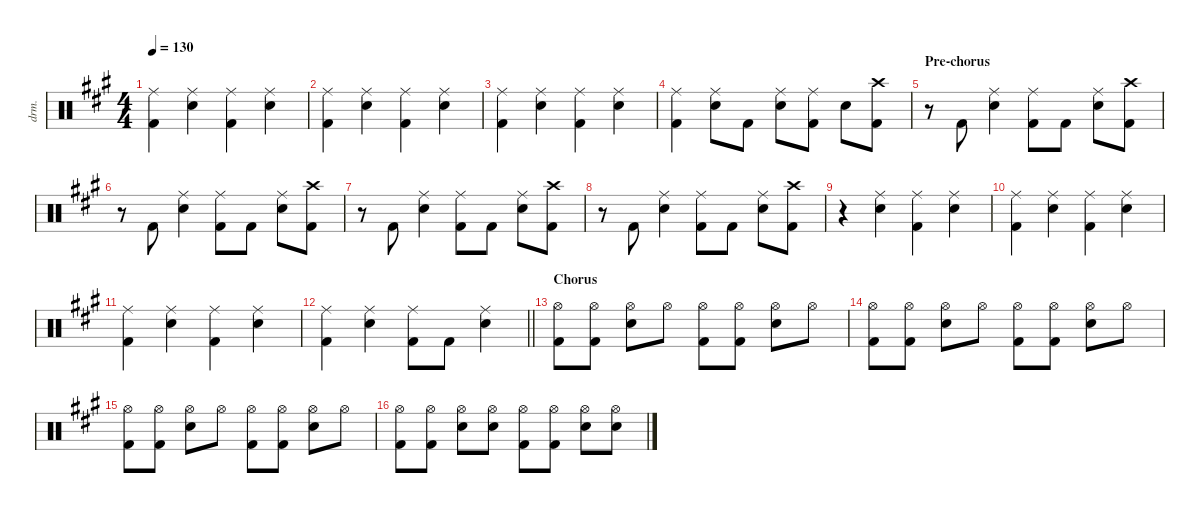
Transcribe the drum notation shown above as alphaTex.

\defaultSystemsLayout 4
\hideDynamics
\bracketExtendMode nobrackets
\track ("Drums" "drm.") {instrument percussion}
\staff {score}
\articulation defaults
\ts (4 4)
\tempo 130
\clef neutral
\ks a
("Ride (middle)"{acc forcenatural} "Kick (hit) 2"{acc forcenatural}).4{dy f beam Down} ("Ride (middle)"{acc forcenatural} "Snare (hit) 2"{acc forcenatural}).4{beam Down} ("Ride (middle)"{acc forcenatural} "Kick (hit) 2"{acc forcenatural}).4{beam Down} ("Ride (middle)"{acc forcenatural} "Snare (hit) 2"{acc forcenatural}).4{beam Down} |
("Ride (middle)"{acc forcenatural} "Kick (hit) 2"{acc forcenatural}).4{beam Down} ("Ride (middle)"{acc forcenatural} "Snare (hit) 2"{acc forcenatural}).4{beam Down} ("Ride (middle)"{acc forcenatural} "Kick (hit) 2"{acc forcenatural}).4{beam Down} ("Ride (middle)"{acc forcenatural} "Snare (hit) 2"{acc forcenatural}).4{beam Down} |
("Ride (middle)"{acc forcenatural} "Kick (hit) 2"{acc forcenatural}).4{beam Down} ("Ride (middle)"{acc forcenatural} "Snare (hit) 2"{acc forcenatural}).4{beam Down} ("Ride (middle)"{acc forcenatural} "Kick (hit) 2"{acc forcenatural}).4{beam Down} ("Ride (middle)"{acc forcenatural} "Snare (hit) 2"{acc forcenatural}).4{beam Down} |
("Ride (middle)"{acc forcenatural} "Kick (hit) 2"{acc forcenatural}).4{beam Down} ("Ride (middle)"{acc forcenatural} "Snare (hit) 2"{acc forcenatural}).8{beam Down} "Kick (hit) 2"{acc forcenatural}.8{beam Down} ("Ride (middle)"{acc forcenatural} "Snare (hit) 2"{acc forcenatural}).8{beam Down} ("Ride (middle)"{acc forcenatural} "Kick (hit) 2"{acc forcenatural}).8{beam Down} "Snare (hit) 2"{acc forcenatural}.8{beam Down} ("Crash high (hit)"{acc forcenatural} "Kick (hit) 2"{acc forcenatural}).8{beam Down} |
\section ("" "Pre-chorus")
r.8{beam Down} "Kick (hit) 2"{acc forcenatural}.8{beam Up} ("Ride (middle)"{acc forcenatural} "Snare (hit) 2"{acc forcenatural}).4{beam Down} ("Ride (middle)"{acc forcenatural} "Kick (hit) 2"{acc forcenatural}).8{beam Down} "Kick (hit) 2"{acc forcenatural}.8{beam Down} ("Ride (middle)"{acc forcenatural} "Snare (hit) 2"{acc forcenatural}).8{beam Down} ("Crash high (hit)"{acc forcenatural} "Kick (hit) 2"{acc forcenatural}).8{beam Down} |
r.8{beam Down} "Kick (hit) 2"{acc forcenatural}.8{beam Up} ("Ride (middle)"{acc forcenatural} "Snare (hit) 2"{acc forcenatural}).4{beam Down} ("Ride (middle)"{acc forcenatural} "Kick (hit) 2"{acc forcenatural}).8{beam Down} "Kick (hit) 2"{acc forcenatural}.8{beam Down} ("Ride (middle)"{acc forcenatural} "Snare (hit) 2"{acc forcenatural}).8{beam Down} ("Crash high (hit)"{acc forcenatural} "Kick (hit) 2"{acc forcenatural}).8{beam Down} |
r.8{beam Down} "Kick (hit) 2"{acc forcenatural}.8{beam Up} ("Ride (middle)"{acc forcenatural} "Snare (hit) 2"{acc forcenatural}).4{beam Down} ("Ride (middle)"{acc forcenatural} "Kick (hit) 2"{acc forcenatural}).8{beam Down} "Kick (hit) 2"{acc forcenatural}.8{beam Down} ("Ride (middle)"{acc forcenatural} "Snare (hit) 2"{acc forcenatural}).8{beam Down} ("Crash high (hit)"{acc forcenatural} "Kick (hit) 2"{acc forcenatural}).8{beam Down} |
r.8{beam Down} "Kick (hit) 2"{acc forcenatural}.8{beam Up} ("Ride (middle)"{acc forcenatural} "Snare (hit) 2"{acc forcenatural}).4{beam Down} ("Ride (middle)"{acc forcenatural} "Kick (hit) 2"{acc forcenatural}).8{beam Down} "Kick (hit) 2"{acc forcenatural}.8{beam Down} ("Ride (middle)"{acc forcenatural} "Snare (hit) 2"{acc forcenatural}).8{beam Down} ("Crash high (hit)"{acc forcenatural} "Kick (hit) 2"{acc forcenatural}).8{beam Down} |
r.4{beam Down} ("Ride (middle)"{acc forcenatural} "Snare (hit) 2"{acc forcenatural}).4{beam Down} ("Ride (middle)"{acc forcenatural} "Kick (hit) 2"{acc forcenatural}).4{beam Down} ("Ride (middle)"{acc forcenatural} "Snare (hit) 2"{acc forcenatural}).4{beam Down} |
("Ride (middle)"{acc forcenatural} "Kick (hit) 2"{acc forcenatural}).4{beam Down} ("Ride (middle)"{acc forcenatural} "Snare (hit) 2"{acc forcenatural}).4{beam Down} ("Ride (middle)"{acc forcenatural} "Kick (hit) 2"{acc forcenatural}).4{beam Down} ("Ride (middle)"{acc forcenatural} "Snare (hit) 2"{acc forcenatural}).4{beam Down} |
("Ride (middle)"{acc forcenatural} "Kick (hit) 2"{acc forcenatural}).4{beam Down} ("Ride (middle)"{acc forcenatural} "Snare (hit) 2"{acc forcenatural}).4{beam Down} ("Ride (middle)"{acc forcenatural} "Kick (hit) 2"{acc forcenatural}).4{beam Down} ("Ride (middle)"{acc forcenatural} "Snare (hit) 2"{acc forcenatural}).4{beam Down} |
\barLineRight lightlight
("Ride (middle)"{acc forcenatural} "Kick (hit) 2"{acc forcenatural}).4{beam Down} ("Ride (middle)"{acc forcenatural} "Snare (hit) 2"{acc forcenatural}).4{beam Down} ("Ride (middle)"{acc forcenatural} "Kick (hit) 2"{acc forcenatural}).8{beam Down} "Kick (hit) 2"{acc forcenatural}.8{beam Down} ("Ride (middle)"{acc forcenatural} "Snare (hit) 2"{acc forcenatural}).4{beam Down} |
\section ("" "Chorus")
("Hi-Hat (open)"{acc forcenatural} "Kick (hit) 2"{acc forcenatural}).8{beam Down} ("Hi-Hat (open)"{acc forcenatural} "Kick (hit) 2"{acc forcenatural}).8{beam Down} ("Hi-Hat (open)"{acc forcenatural} "Snare (hit) 2"{acc forcenatural}).8{beam Down} "Hi-Hat (open)"{acc forcenatural}.8{beam Down} ("Hi-Hat (open)"{acc forcenatural} "Kick (hit) 2"{acc forcenatural}).8{beam Down} ("Hi-Hat (open)"{acc forcenatural} "Kick (hit) 2"{acc forcenatural}).8{beam Down} ("Hi-Hat (open)"{acc forcenatural} "Snare (hit) 2"{acc forcenatural}).8{beam Down} "Hi-Hat (open)"{acc forcenatural}.8{beam Down} |
("Hi-Hat (open)"{acc forcenatural} "Kick (hit) 2"{acc forcenatural}).8{beam Down} ("Hi-Hat (open)"{acc forcenatural} "Kick (hit) 2"{acc forcenatural}).8{beam Down} ("Hi-Hat (open)"{acc forcenatural} "Snare (hit) 2"{acc forcenatural}).8{beam Down} "Hi-Hat (open)"{acc forcenatural}.8{beam Down} ("Hi-Hat (open)"{acc forcenatural} "Kick (hit) 2"{acc forcenatural}).8{beam Down} ("Hi-Hat (open)"{acc forcenatural} "Kick (hit) 2"{acc forcenatural}).8{beam Down} ("Hi-Hat (open)"{acc forcenatural} "Snare (hit) 2"{acc forcenatural}).8{beam Down} "Hi-Hat (open)"{acc forcenatural}.8{beam Down} |
("Hi-Hat (open)"{acc forcenatural} "Kick (hit) 2"{acc forcenatural}).8{beam Down} ("Hi-Hat (open)"{acc forcenatural} "Kick (hit) 2"{acc forcenatural}).8{beam Down} ("Hi-Hat (open)"{acc forcenatural} "Snare (hit) 2"{acc forcenatural}).8{beam Down} "Hi-Hat (open)"{acc forcenatural}.8{beam Down} ("Hi-Hat (open)"{acc forcenatural} "Kick (hit) 2"{acc forcenatural}).8{beam Down} ("Hi-Hat (open)"{acc forcenatural} "Kick (hit) 2"{acc forcenatural}).8{beam Down} ("Hi-Hat (open)"{acc forcenatural} "Snare (hit) 2"{acc forcenatural}).8{beam Down} "Hi-Hat (open)"{acc forcenatural}.8{beam Down} |
("Hi-Hat (open)"{acc forcenatural} "Kick (hit) 2"{acc forcenatural}).8{beam Down} ("Hi-Hat (open)"{acc forcenatural} "Kick (hit) 2"{acc forcenatural}).8{beam Down} ("Hi-Hat (open)"{acc forcenatural} "Snare (hit) 2"{acc forcenatural}).8{beam Down} ("Hi-Hat (open)"{acc forcenatural} "Snare (hit) 2"{acc forcenatural}).8{beam Down} ("Hi-Hat (open)"{acc forcenatural} "Kick (hit) 2"{acc forcenatural}).8{beam Down} ("Hi-Hat (open)"{acc forcenatural} "Kick (hit) 2"{acc forcenatural}).8{beam Down} ("Hi-Hat (open)"{acc forcenatural} "Snare (hit) 2"{acc forcenatural}).8{beam Down} ("Hi-Hat (open)"{acc forcenatural} "Snare (hit) 2"{acc forcenatural}).8{beam Down}
